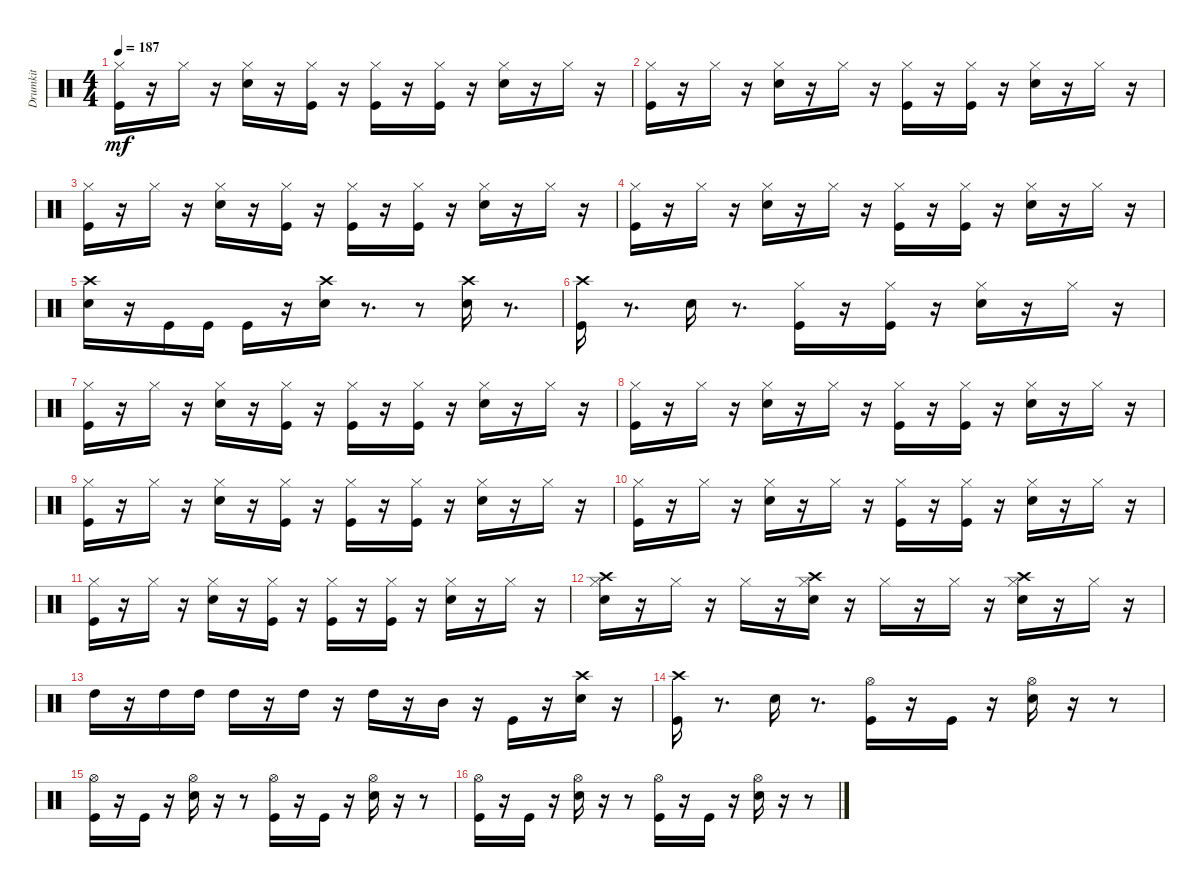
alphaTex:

\track ("Drumkit" "Drumkit") {instrument percussion}
\staff {score}
\articulation defaults
\ts (4 4)
\tempo 187
\clef neutral
\ks c
("Kick (hit)" "Hi-Hat (closed)").16{dy mf} r.16 "Hi-Hat (closed)".16 r.16 ("Snare (hit) 2" "Hi-Hat (closed)").16 r.16 ("Kick (hit)" "Hi-Hat (closed)").16 r.16 ("Kick (hit)" "Hi-Hat (closed)").16 r.16 ("Kick (hit)" "Hi-Hat (closed)").16 r.16 ("Snare (hit) 2" "Hi-Hat (closed)").16 r.16 "Hi-Hat (closed)".16 r.16 |
("Kick (hit)" "Hi-Hat (closed)").16 r.16 "Hi-Hat (closed)".16 r.16 ("Snare (hit) 2" "Hi-Hat (closed)").16 r.16 "Hi-Hat (closed)".16 r.16 ("Kick (hit)" "Hi-Hat (closed)").16 r.16 ("Kick (hit)" "Hi-Hat (closed)").16 r.16 ("Snare (hit) 2" "Hi-Hat (closed)").16 r.16 "Hi-Hat (closed)".16 r.16 |
("Kick (hit)" "Hi-Hat (closed)").16 r.16 "Hi-Hat (closed)".16 r.16 ("Snare (hit) 2" "Hi-Hat (closed)").16 r.16 ("Kick (hit)" "Hi-Hat (closed)").16 r.16 ("Kick (hit)" "Hi-Hat (closed)").16 r.16 ("Kick (hit)" "Hi-Hat (closed)").16 r.16 ("Snare (hit) 2" "Hi-Hat (closed)").16 r.16 "Hi-Hat (closed)".16 r.16 |
("Kick (hit)" "Hi-Hat (closed)").16 r.16 "Hi-Hat (closed)".16 r.16 ("Snare (hit) 2" "Hi-Hat (closed)").16 r.16 "Hi-Hat (closed)".16 r.16 ("Kick (hit)" "Hi-Hat (closed)").16 r.16 ("Kick (hit)" "Hi-Hat (closed)").16 r.16 ("Snare (hit) 2" "Hi-Hat (closed)").16 r.16 "Hi-Hat (closed)".16 r.16 |
("Snare (hit) 2" "Crash high (hit)").16 r.16 "Kick (hit)".16 "Kick (hit)".16 "Kick (hit)".16 r.16 ("Crash high (hit)" "Snare (hit) 2").16 r.8{d} r.8 ("Crash high (hit)" "Snare (hit) 2").16 r.8{d} |
("Crash high (hit)" "Kick (hit)").16 r.8{d} "Snare (hit) 2".16 r.8{d} ("Kick (hit)" "Hi-Hat (closed)").16 r.16 ("Kick (hit)" "Hi-Hat (closed)").16 r.16 ("Snare (hit) 2" "Hi-Hat (closed)").16 r.16 "Hi-Hat (closed)".16 r.16 |
("Kick (hit)" "Hi-Hat (closed)").16 r.16 "Hi-Hat (closed)".16 r.16 ("Snare (hit) 2" "Hi-Hat (closed)").16 r.16 ("Kick (hit)" "Hi-Hat (closed)").16 r.16 ("Kick (hit)" "Hi-Hat (closed)").16 r.16 ("Kick (hit)" "Hi-Hat (closed)").16 r.16 ("Snare (hit) 2" "Hi-Hat (closed)").16 r.16 "Hi-Hat (closed)".16 r.16 |
("Kick (hit)" "Hi-Hat (closed)").16 r.16 "Hi-Hat (closed)".16 r.16 ("Snare (hit) 2" "Hi-Hat (closed)").16 r.16 "Hi-Hat (closed)".16 r.16 ("Kick (hit)" "Hi-Hat (closed)").16 r.16 ("Kick (hit)" "Hi-Hat (closed)").16 r.16 ("Snare (hit) 2" "Hi-Hat (closed)").16 r.16 "Hi-Hat (closed)".16 r.16 |
("Kick (hit)" "Hi-Hat (closed)").16 r.16 "Hi-Hat (closed)".16 r.16 ("Snare (hit) 2" "Hi-Hat (closed)").16 r.16 ("Kick (hit)" "Hi-Hat (closed)").16 r.16 ("Kick (hit)" "Hi-Hat (closed)").16 r.16 ("Kick (hit)" "Hi-Hat (closed)").16 r.16 ("Snare (hit) 2" "Hi-Hat (closed)").16 r.16 "Hi-Hat (closed)".16 r.16 |
("Kick (hit)" "Hi-Hat (closed)").16 r.16 "Hi-Hat (closed)".16 r.16 ("Snare (hit) 2" "Hi-Hat (closed)").16 r.16 "Hi-Hat (closed)".16 r.16 ("Kick (hit)" "Hi-Hat (closed)").16 r.16 ("Kick (hit)" "Hi-Hat (closed)").16 r.16 ("Snare (hit) 2" "Hi-Hat (closed)").16 r.16 "Hi-Hat (closed)".16 r.16 |
("Hi-Hat (closed)" "Kick (hit)").16 r.16 "Hi-Hat (closed)".16 r.16 ("Snare (hit) 2" "Hi-Hat (closed)").16 r.16 ("Kick (hit)" "Hi-Hat (closed)").16 r.16 ("Kick (hit)" "Hi-Hat (closed)").16 r.16 ("Kick (hit)" "Hi-Hat (closed)").16 r.16 ("Snare (hit) 2" "Hi-Hat (closed)").16 r.16 "Hi-Hat (closed)".16 r.16 |
("Crash high (hit)" "Snare (hit) 2" "Hi-Hat (closed)").16 r.16 "Hi-Hat (closed)".16 r.16 "Hi-Hat (closed)".16 r.16 ("Crash high (hit)" "Snare (hit) 2" "Hi-Hat (closed)").16 r.16 "Hi-Hat (closed)".16 r.16 "Hi-Hat (closed)".16 r.16 ("Crash high (hit)" "Snare (hit) 2" "Hi-Hat (closed)").16 r.16 "Hi-Hat (closed)".16 r.16 |
"High Tom (hit)".16 r.16 "High Tom (hit)".16 "High Tom (hit)".16 "High Tom (hit)".16 r.16 "High Tom (hit)".16 r.16 "High Tom (hit)".16 r.16 "Mid Tom (hit)".16 r.16 "Kick (hit)".16 r.16 ("Snare (hit) 2" "Crash high (hit)").16 r.16 |
("Kick (hit)" "Crash high (hit)").16 r.8{d} "Snare (hit) 2".16 r.8{d} ("Kick (hit)" "Hi-Hat (open)").16 r.16 "Kick (hit)".16 r.16 ("Snare (hit) 2" "Hi-Hat (open)").16 r.16 r.8 |
("Kick (hit)" "Hi-Hat (open)").16 r.16 "Kick (hit)".16 r.16 ("Snare (hit) 2" "Hi-Hat (open)").16 r.16 r.8 ("Kick (hit)" "Hi-Hat (open)").16 r.16 "Kick (hit)".16 r.16 ("Snare (hit) 2" "Hi-Hat (open)").16 r.16 r.8 |
("Kick (hit)" "Hi-Hat (open)").16 r.16 "Kick (hit)".16 r.16 ("Snare (hit) 2" "Hi-Hat (open)").16 r.16 r.8 ("Kick (hit)" "Hi-Hat (open)").16 r.16 "Kick (hit)".16 r.16 ("Snare (hit) 2" "Hi-Hat (open)").16 r.16 r.8
